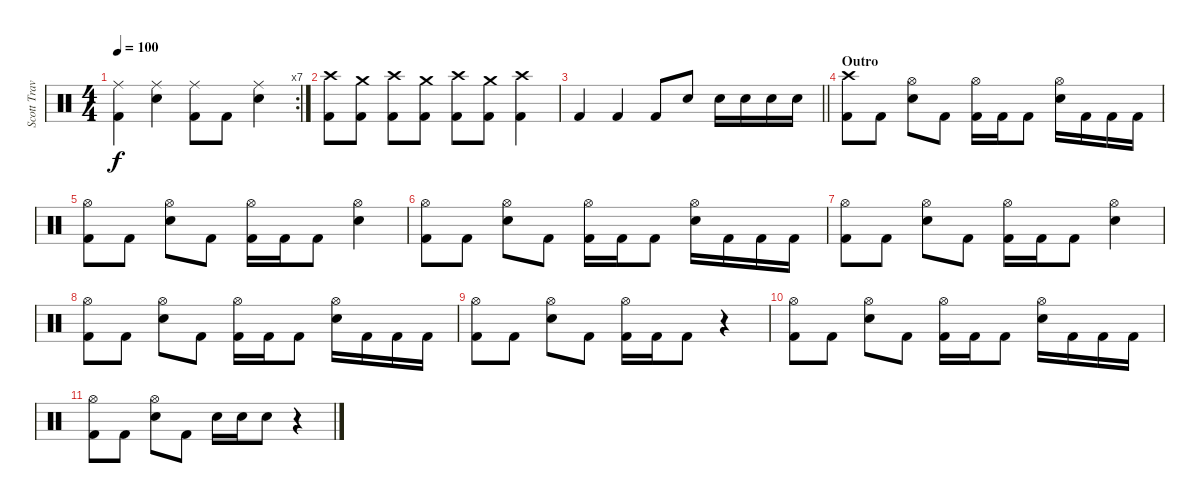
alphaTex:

\track ("Scott Travis" "Scott Trav") {instrument percussion}
\staff {score}
\articulation defaults
\rc 7
\ts (4 4)
\tempo 100
\clef neutral
\ks c
("Ride (middle)" "Kick (hit) 2").4{dy f} ("Ride (middle)" "Snare (hit) 2").4 ("Ride (middle)" "Kick (hit) 2").8 "Kick (hit) 2".8 ("Ride (middle)" "Snare (hit) 2").4 |
("Crash high (hit)" "Kick (hit) 2").8 ("Crash medium (hit)" "Kick (hit) 2").8 ("Crash high (hit)" "Kick (hit) 2").8 ("Crash medium (hit)" "Kick (hit) 2").8 ("Crash high (hit)" "Kick (hit) 2").8 ("Crash medium (hit)" "Kick (hit) 2").8 ("Crash high (hit)" "Kick (hit) 2").4 |
\barLineRight lightlight "Kick (hit) 2".4 "Kick (hit) 2".4 "Kick (hit) 2".8 "Snare (hit) 2".8 "Snare (hit) 2".16 "Snare (hit) 2".16 "Snare (hit) 2".16 "Snare (hit) 2".16
|
\section ("" "Outro")
("Crash high (hit)" "Kick (hit) 2").8 "Kick (hit) 2".8 ("Hi-Hat (open)" "Snare (hit) 2").8 "Kick (hit) 2".8 ("Hi-Hat (open)" "Kick (hit) 2").16 "Kick (hit) 2".16 "Kick (hit) 2".8 ("Hi-Hat (open)" "Snare (hit) 2").16 "Kick (hit) 2".16 "Kick (hit) 2".16 "Kick (hit) 2".16 |
("Hi-Hat (open)" "Kick (hit) 2").8 "Kick (hit) 2".8 ("Hi-Hat (open)" "Snare (hit) 2").8 "Kick (hit) 2".8 ("Hi-Hat (open)" "Kick (hit) 2").16 "Kick (hit) 2".16 "Kick (hit) 2".8 ("Hi-Hat (open)" "Snare (hit) 2").4 |
("Hi-Hat (open)" "Kick (hit) 2").8 "Kick (hit) 2".8 ("Hi-Hat (open)" "Snare (hit) 2").8 "Kick (hit) 2".8 ("Hi-Hat (open)" "Kick (hit) 2").16 "Kick (hit) 2".16 "Kick (hit) 2".8 ("Hi-Hat (open)" "Snare (hit) 2").16 "Kick (hit) 2".16 "Kick (hit) 2".16 "Kick (hit) 2".16 |
("Hi-Hat (open)" "Kick (hit) 2").8 "Kick (hit) 2".8 ("Hi-Hat (open)" "Snare (hit) 2").8 "Kick (hit) 2".8 ("Hi-Hat (open)" "Kick (hit) 2").16 "Kick (hit) 2".16 "Kick (hit) 2".8 ("Hi-Hat (open)" "Snare (hit) 2").4 |
("Hi-Hat (open)" "Kick (hit) 2").8 "Kick (hit) 2".8 ("Hi-Hat (open)" "Snare (hit) 2").8 "Kick (hit) 2".8 ("Hi-Hat (open)" "Kick (hit) 2").16 "Kick (hit) 2".16 "Kick (hit) 2".8 ("Hi-Hat (open)" "Snare (hit) 2").16 "Kick (hit) 2".16 "Kick (hit) 2".16 "Kick (hit) 2".16 |
("Hi-Hat (open)" "Kick (hit) 2").8 "Kick (hit) 2".8 ("Hi-Hat (open)" "Snare (hit) 2").8 "Kick (hit) 2".8 ("Hi-Hat (open)" "Kick (hit) 2").16 "Kick (hit) 2".16 "Kick (hit) 2".8 r.4{volume 0} |
("Hi-Hat (open)" "Kick (hit) 2").8{volume 16} "Kick (hit) 2".8 ("Hi-Hat (open)" "Snare (hit) 2").8 "Kick (hit) 2".8 ("Hi-Hat (open)" "Kick (hit) 2").16 "Kick (hit) 2".16 "Kick (hit) 2".8 ("Hi-Hat (open)" "Snare (hit) 2").16 "Kick (hit) 2".16 "Kick (hit) 2".16 "Kick (hit) 2".16 |
("Hi-Hat (open)" "Kick (hit) 2").8 "Kick (hit) 2".8 ("Hi-Hat (open)" "Snare (hit) 2").8 "Kick (hit) 2".8 "Snare (hit) 2".16 "Snare (hit) 2".16 "Snare (hit) 2".8 r.4
